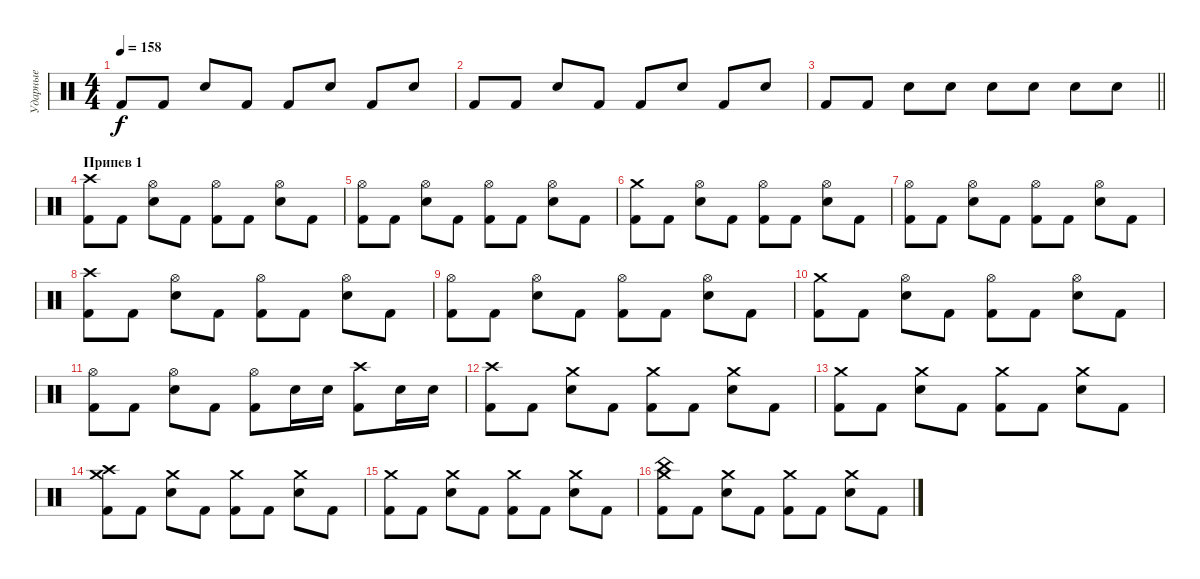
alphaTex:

\track ("Ударные" "Ударные") {instrument percussion}
\staff {score}
\articulation defaults
\ts (4 4)
\tempo 158
\clef neutral
\ks c "Kick (hit) 2".8{dy f} "Kick (hit) 2".8 "Electric Snare (hit)".8 "Kick (hit) 2".8 "Kick (hit) 2".8 "Electric Snare (hit)".8 "Kick (hit) 2".8 "Electric Snare (hit)".8
|
"Kick (hit) 2".8 "Kick (hit) 2".8 "Electric Snare (hit)".8 "Kick (hit) 2".8 "Kick (hit) 2".8 "Electric Snare (hit)".8 "Kick (hit) 2".8 "Electric Snare (hit)".8 |
\barLineRight lightlight "Kick (hit) 2".8 "Kick (hit) 2".8 "Electric Snare (hit)".8 "Electric Snare (hit)".8 "Electric Snare (hit)".8 "Electric Snare (hit)".8 "Electric Snare (hit)".8 "Electric Snare (hit)".8
|
\section ("" "Припев 1")
("Crash high (hit)" "Kick (hit) 2").8 "Kick (hit) 2".8 ("Hi-Hat (open)" "Electric Snare (hit)").8 "Kick (hit) 2".8 ("Hi-Hat (open)" "Kick (hit) 2").8 "Kick (hit) 2".8 ("Hi-Hat (open)" "Electric Snare (hit)").8 "Kick (hit) 2".8 |
("Hi-Hat (open)" "Kick (hit) 2").8 "Kick (hit) 2".8 ("Hi-Hat (open)" "Electric Snare (hit)").8 "Kick (hit) 2".8 ("Hi-Hat (open)" "Kick (hit) 2").8 "Kick (hit) 2".8 ("Hi-Hat (open)" "Electric Snare (hit)").8 "Kick (hit) 2".8 |
("Crash medium (hit)" "Kick (hit) 2").8 "Kick (hit) 2".8 ("Hi-Hat (open)" "Electric Snare (hit)").8 "Kick (hit) 2".8 ("Hi-Hat (open)" "Kick (hit) 2").8 "Kick (hit) 2".8 ("Hi-Hat (open)" "Electric Snare (hit)").8 "Kick (hit) 2".8 |
("Hi-Hat (open)" "Kick (hit) 2").8 "Kick (hit) 2".8 ("Hi-Hat (open)" "Electric Snare (hit)").8 "Kick (hit) 2".8 ("Hi-Hat (open)" "Kick (hit) 2").8 "Kick (hit) 2".8 ("Hi-Hat (open)" "Electric Snare (hit)").8 "Kick (hit) 2".8 |
("Crash high (hit)" "Kick (hit) 2").8 "Kick (hit) 2".8 ("Hi-Hat (open)" "Electric Snare (hit)").8 "Kick (hit) 2".8 ("Hi-Hat (open)" "Kick (hit) 2").8 "Kick (hit) 2".8 ("Hi-Hat (open)" "Electric Snare (hit)").8 "Kick (hit) 2".8 |
("Hi-Hat (open)" "Kick (hit) 2").8 "Kick (hit) 2".8 ("Hi-Hat (open)" "Electric Snare (hit)").8 "Kick (hit) 2".8 ("Hi-Hat (open)" "Kick (hit) 2").8 "Kick (hit) 2".8 ("Hi-Hat (open)" "Electric Snare (hit)").8 "Kick (hit) 2".8 |
("Crash medium (hit)" "Kick (hit) 2").8 "Kick (hit) 2".8 ("Hi-Hat (open)" "Electric Snare (hit)").8 "Kick (hit) 2".8 ("Hi-Hat (open)" "Kick (hit) 2").8 "Kick (hit) 2".8 ("Hi-Hat (open)" "Electric Snare (hit)").8 "Kick (hit) 2".8 |
("Hi-Hat (open)" "Kick (hit) 2").8 "Kick (hit) 2".8 ("Hi-Hat (open)" "Electric Snare (hit)").8 "Kick (hit) 2".8 ("Hi-Hat (open)" "Kick (hit) 2").8 "Electric Snare (hit)".16 "Electric Snare (hit)".16 ("Crash high (hit)" "Kick (hit) 2").8 "Electric Snare (hit)".16 "Electric Snare (hit)".16 |
("Crash high (hit)" "Kick (hit) 2").8 "Kick (hit) 2".8 ("Crash medium (hit)" "Electric Snare (hit)").8 "Kick (hit) 2".8 ("Crash medium (hit)" "Kick (hit) 2").8 "Kick (hit) 2".8 ("Crash medium (hit)" "Electric Snare (hit)").8 "Kick (hit) 2".8 |
("Crash medium (hit)" "Kick (hit) 2").8 "Kick (hit) 2".8 ("Crash medium (hit)" "Electric Snare (hit)").8 "Kick (hit) 2".8 ("Crash medium (hit)" "Kick (hit) 2").8 "Kick (hit) 2".8 ("Crash medium (hit)" "Electric Snare (hit)").8 "Kick (hit) 2".8 |
("Crash medium (hit)" "Crash high (hit)" "Kick (hit) 2").8 "Kick (hit) 2".8 ("Crash medium (hit)" "Electric Snare (hit)").8 "Kick (hit) 2".8 ("Crash medium (hit)" "Kick (hit) 2").8 "Kick (hit) 2".8 ("Crash medium (hit)" "Electric Snare (hit)").8 "Kick (hit) 2".8 |
("Crash medium (hit)" "Kick (hit) 2").8 "Kick (hit) 2".8 ("Crash medium (hit)" "Electric Snare (hit)").8 "Kick (hit) 2".8 ("Crash medium (hit)" "Kick (hit) 2").8 "Kick (hit) 2".8 ("Crash medium (hit)" "Electric Snare (hit)").8 "Kick (hit) 2".8 |
("Crash medium (hit)" "China (hit)" "Kick (hit) 2").8 "Kick (hit) 2".8 ("Crash medium (hit)" "Electric Snare (hit)").8 "Kick (hit) 2".8 ("Crash medium (hit)" "Kick (hit) 2").8 "Kick (hit) 2".8 ("Crash medium (hit)" "Electric Snare (hit)").8 "Kick (hit) 2".8
